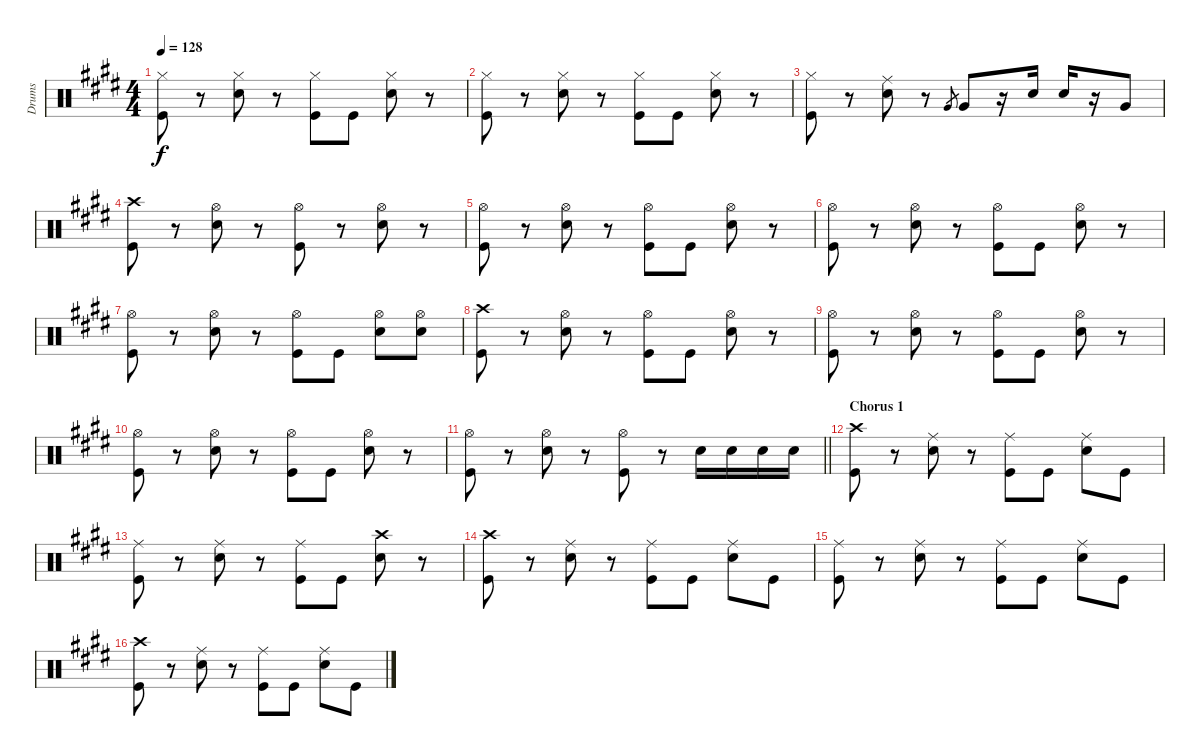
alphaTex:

\track ("Drums" "Drums") {instrument percussion}
\staff {score}
\articulation defaults
\ts (4 4)
\tempo 128
\clef neutral
\ks e
("Hi-Hat (closed)" "Kick (hit)").8{dy f} r.8 ("Hi-Hat (closed)" "Snare (hit) 2").8 r.8 ("Hi-Hat (closed)" "Kick (hit)").8 "Kick (hit)".8 ("Hi-Hat (closed)" "Snare (hit) 2").8 r.8 |
("Hi-Hat (closed)" "Kick (hit)").8 r.8 ("Hi-Hat (closed)" "Snare (hit) 2").8 r.8 ("Hi-Hat (closed)" "Kick (hit)").8 "Kick (hit)".8 ("Hi-Hat (closed)" "Snare (hit) 2").8 r.8 |
("Hi-Hat (closed)" "Kick (hit)").8 r.8 ("Ride (middle)" "Snare (hit) 2").8 r.8 "Very Low Tom (hit)".8{gr} "Very Low Tom (hit)".8 r.16 "Snare (hit) 2".16 "Snare (hit) 2".16 r.16 "Very Low Tom (hit)".8 |
("Crash high (hit)" "Kick (hit)").8 r.8 ("Hi-Hat (open)" "Snare (hit) 2").8 r.8 ("Hi-Hat (open)" "Kick (hit)").8 r.8 ("Hi-Hat (open)" "Snare (hit) 2").8 r.8 |
("Hi-Hat (open)" "Kick (hit)").8 r.8 ("Hi-Hat (open)" "Snare (hit) 2").8 r.8 ("Hi-Hat (open)" "Kick (hit)").8 "Kick (hit)".8 ("Hi-Hat (open)" "Snare (hit) 2").8 r.8 |
("Hi-Hat (open)" "Kick (hit)").8 r.8 ("Hi-Hat (open)" "Snare (hit) 2").8 r.8 ("Hi-Hat (open)" "Kick (hit)").8 "Kick (hit)".8 ("Hi-Hat (open)" "Snare (hit) 2").8 r.8 |
("Hi-Hat (open)" "Kick (hit)").8 r.8 ("Hi-Hat (open)" "Snare (hit) 2").8 r.8 ("Hi-Hat (open)" "Kick (hit)").8 "Kick (hit)".8 ("Hi-Hat (open)" "Snare (hit) 2").8 ("Hi-Hat (open)" "Snare (hit) 2").8 |
("Crash high (hit)" "Kick (hit)").8 r.8 ("Hi-Hat (open)" "Snare (hit) 2").8 r.8 ("Hi-Hat (open)" "Kick (hit)").8 "Kick (hit)".8 ("Hi-Hat (open)" "Snare (hit) 2").8 r.8 |
("Hi-Hat (open)" "Kick (hit)").8 r.8 ("Hi-Hat (open)" "Snare (hit) 2").8 r.8 ("Hi-Hat (open)" "Kick (hit)").8 "Kick (hit)".8 ("Hi-Hat (open)" "Snare (hit) 2").8 r.8 |
("Hi-Hat (open)" "Kick (hit)").8 r.8 ("Hi-Hat (open)" "Snare (hit) 2").8 r.8 ("Hi-Hat (open)" "Kick (hit)").8 "Kick (hit)".8 ("Hi-Hat (open)" "Snare (hit) 2").8 r.8 |
\barLineRight lightlight
("Hi-Hat (open)" "Kick (hit)").8 r.8 ("Hi-Hat (open)" "Snare (hit) 2").8 r.8 ("Hi-Hat (open)" "Kick (hit)").8 r.8 "Snare (hit) 2".16 "Snare (hit) 2".16 "Snare (hit) 2".16 "Snare (hit) 2".16 |
\section ("" "Chorus 1")
("Crash high (hit)" "Kick (hit)").8 r.8 ("Ride (middle)" "Snare (hit) 2").8 r.8 ("Ride (middle)" "Kick (hit)").8 "Kick (hit)".8 ("Ride (middle)" "Snare (hit) 2").8 "Kick (hit)".8 |
("Ride (middle)" "Kick (hit)").8 r.8 ("Ride (middle)" "Snare (hit) 2").8 r.8 ("Ride (middle)" "Kick (hit)").8 "Kick (hit)".8 ("Crash high (hit)" "Snare (hit) 2").8 r.8 |
("Crash high (hit)" "Kick (hit)").8 r.8 ("Ride (middle)" "Snare (hit) 2").8 r.8 ("Ride (middle)" "Kick (hit)").8 "Kick (hit)".8 ("Ride (middle)" "Snare (hit) 2").8 "Kick (hit)".8 |
("Ride (middle)" "Kick (hit)").8 r.8 ("Ride (middle)" "Snare (hit) 2").8 r.8 ("Ride (middle)" "Kick (hit)").8 "Kick (hit)".8 ("Ride (middle)" "Snare (hit) 2").8 "Kick (hit)".8 |
("Crash high (hit)" "Kick (hit)").8 r.8 ("Ride (middle)" "Snare (hit) 2").8 r.8 ("Ride (middle)" "Kick (hit)").8 "Kick (hit)".8 ("Ride (middle)" "Snare (hit) 2").8 "Kick (hit)".8
